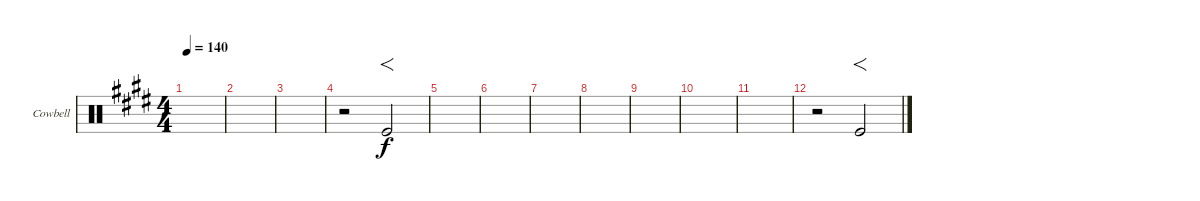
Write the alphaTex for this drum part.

\defaultSystemsLayout 4
\bracketExtendMode groupsimilarinstruments
\firstSystemTrackNameOrientation horizontal
\otherSystemsTrackNameOrientation horizontal
\track ("Cowbell" "Cowbell") {instrument percussion}
\staff {score}
\articulation defaults
\ts (4 4)
\tempo 140
\clef neutral
\ks e
|
|
|
r.2 "Kick (hit)".2{f} |
|
|
|
|
|
|
|
r.2 "Kick (hit)".2{f}
